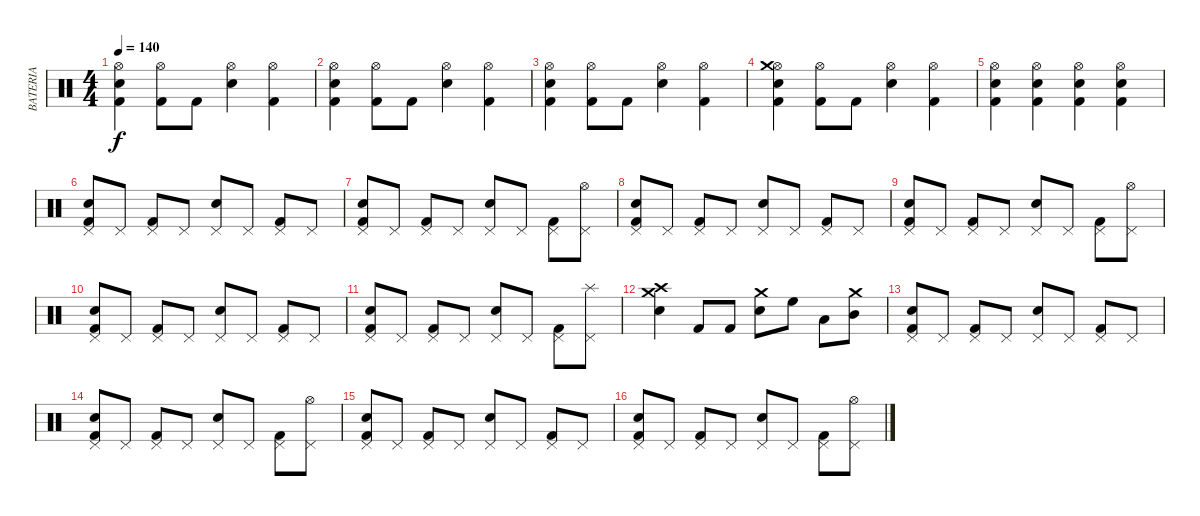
\track ("BATERIA" "BATERIA") {instrument percussion}
\staff {score}
\articulation defaults
\ts (4 4)
\tempo 140
\clef neutral
\ks c
("Kick (hit) 2" "Electric Snare (hit)" "Hi-Hat (open)").4{dy f} ("Kick (hit) 2" "Hi-Hat (open)").8 "Kick (hit) 2".8 ("Electric Snare (hit)" "Hi-Hat (open)").4 ("Kick (hit) 2" "Hi-Hat (open)").4 |
("Kick (hit) 2" "Electric Snare (hit)" "Hi-Hat (open)").4 ("Kick (hit) 2" "Hi-Hat (open)").8 "Kick (hit) 2".8 ("Electric Snare (hit)" "Hi-Hat (open)").4 ("Kick (hit) 2" "Hi-Hat (open)").4 |
("Kick (hit) 2" "Electric Snare (hit)" "Hi-Hat (open)").4 ("Kick (hit) 2" "Hi-Hat (open)").8 "Kick (hit) 2".8 ("Electric Snare (hit)" "Hi-Hat (open)").4 ("Kick (hit) 2" "Hi-Hat (open)").4 |
("Kick (hit) 2" "Electric Snare (hit)" "Hi-Hat (open)" "Crash medium (hit)").4 ("Kick (hit) 2" "Hi-Hat (open)").8 "Kick (hit) 2".8 ("Electric Snare (hit)" "Hi-Hat (open)").4 ("Kick (hit) 2" "Hi-Hat (open)").4 |
("Kick (hit) 2" "Electric Snare (hit)" "Hi-Hat (open)").4 ("Kick (hit) 2" "Electric Snare (hit)" "Hi-Hat (open)").4 ("Kick (hit) 2" "Electric Snare (hit)" "Hi-Hat (open)").4 ("Kick (hit) 2" "Electric Snare (hit)" "Hi-Hat (open)").4 |
("Kick (hit) 2" "Electric Snare (hit)" "Pedal Hi-Hat (hit)").8 "Pedal Hi-Hat (hit)".8 ("Kick (hit) 2" "Pedal Hi-Hat (hit)").8 "Pedal Hi-Hat (hit)".8 ("Electric Snare (hit)" "Pedal Hi-Hat (hit)").8 "Pedal Hi-Hat (hit)".8 ("Kick (hit) 2" "Pedal Hi-Hat (hit)").8 "Pedal Hi-Hat (hit)".8 |
("Kick (hit) 2" "Electric Snare (hit)" "Pedal Hi-Hat (hit)").8 "Pedal Hi-Hat (hit)".8 ("Kick (hit) 2" "Pedal Hi-Hat (hit)").8 "Pedal Hi-Hat (hit)".8 ("Electric Snare (hit)" "Pedal Hi-Hat (hit)").8 "Pedal Hi-Hat (hit)".8 ("Kick (hit) 2" "Pedal Hi-Hat (hit)").8 ("Pedal Hi-Hat (hit)" "Hi-Hat (open)").8 |
("Kick (hit) 2" "Electric Snare (hit)" "Pedal Hi-Hat (hit)").8 "Pedal Hi-Hat (hit)".8 ("Kick (hit) 2" "Pedal Hi-Hat (hit)").8 "Pedal Hi-Hat (hit)".8 ("Electric Snare (hit)" "Pedal Hi-Hat (hit)").8 "Pedal Hi-Hat (hit)".8 ("Kick (hit) 2" "Pedal Hi-Hat (hit)").8 "Pedal Hi-Hat (hit)".8 |
("Kick (hit) 2" "Electric Snare (hit)" "Pedal Hi-Hat (hit)").8 "Pedal Hi-Hat (hit)".8 ("Kick (hit) 2" "Pedal Hi-Hat (hit)").8 "Pedal Hi-Hat (hit)".8 ("Electric Snare (hit)" "Pedal Hi-Hat (hit)").8 "Pedal Hi-Hat (hit)".8 ("Kick (hit) 2" "Pedal Hi-Hat (hit)").8 ("Pedal Hi-Hat (hit)" "Hi-Hat (open)").8 |
("Kick (hit) 2" "Electric Snare (hit)" "Pedal Hi-Hat (hit)").8 "Pedal Hi-Hat (hit)".8 ("Kick (hit) 2" "Pedal Hi-Hat (hit)").8 "Pedal Hi-Hat (hit)".8 ("Electric Snare (hit)" "Pedal Hi-Hat (hit)").8 "Pedal Hi-Hat (hit)".8 ("Kick (hit) 2" "Pedal Hi-Hat (hit)").8 "Pedal Hi-Hat (hit)".8 |
("Kick (hit) 2" "Electric Snare (hit)" "Pedal Hi-Hat (hit)").8 "Pedal Hi-Hat (hit)".8 ("Kick (hit) 2" "Pedal Hi-Hat (hit)").8 "Pedal Hi-Hat (hit)".8 ("Electric Snare (hit)" "Pedal Hi-Hat (hit)").8 "Pedal Hi-Hat (hit)".8 ("Kick (hit) 2" "Pedal Hi-Hat (hit)").8 ("Pedal Hi-Hat (hit)" "Splash (hit)").8 |
("Electric Snare (hit)" "Crash medium (hit)" "Crash high (hit)").4 "Kick (hit) 2".8 "Kick (hit) 2".8 ("Electric Snare (hit)" "Crash medium (hit)").8 "High Floor Tom (hit)".8 "Low Tom (hit)".8 ("Mid Tom (hit)" "Crash medium (hit)").8 |
("Kick (hit) 2" "Electric Snare (hit)" "Pedal Hi-Hat (hit)").8 "Pedal Hi-Hat (hit)".8 ("Kick (hit) 2" "Pedal Hi-Hat (hit)").8 "Pedal Hi-Hat (hit)".8 ("Electric Snare (hit)" "Pedal Hi-Hat (hit)").8 "Pedal Hi-Hat (hit)".8 ("Kick (hit) 2" "Pedal Hi-Hat (hit)").8 "Pedal Hi-Hat (hit)".8 |
("Kick (hit) 2" "Electric Snare (hit)" "Pedal Hi-Hat (hit)").8 "Pedal Hi-Hat (hit)".8 ("Kick (hit) 2" "Pedal Hi-Hat (hit)").8 "Pedal Hi-Hat (hit)".8 ("Electric Snare (hit)" "Pedal Hi-Hat (hit)").8 "Pedal Hi-Hat (hit)".8 ("Kick (hit) 2" "Pedal Hi-Hat (hit)").8 ("Pedal Hi-Hat (hit)" "Hi-Hat (open)").8 |
("Kick (hit) 2" "Electric Snare (hit)" "Pedal Hi-Hat (hit)").8 "Pedal Hi-Hat (hit)".8 ("Kick (hit) 2" "Pedal Hi-Hat (hit)").8 "Pedal Hi-Hat (hit)".8 ("Electric Snare (hit)" "Pedal Hi-Hat (hit)").8 "Pedal Hi-Hat (hit)".8 ("Kick (hit) 2" "Pedal Hi-Hat (hit)").8 "Pedal Hi-Hat (hit)".8 |
("Kick (hit) 2" "Electric Snare (hit)" "Pedal Hi-Hat (hit)").8 "Pedal Hi-Hat (hit)".8 ("Kick (hit) 2" "Pedal Hi-Hat (hit)").8 "Pedal Hi-Hat (hit)".8 ("Electric Snare (hit)" "Pedal Hi-Hat (hit)").8 "Pedal Hi-Hat (hit)".8 ("Kick (hit) 2" "Pedal Hi-Hat (hit)").8 ("Pedal Hi-Hat (hit)" "Hi-Hat (open)").8
